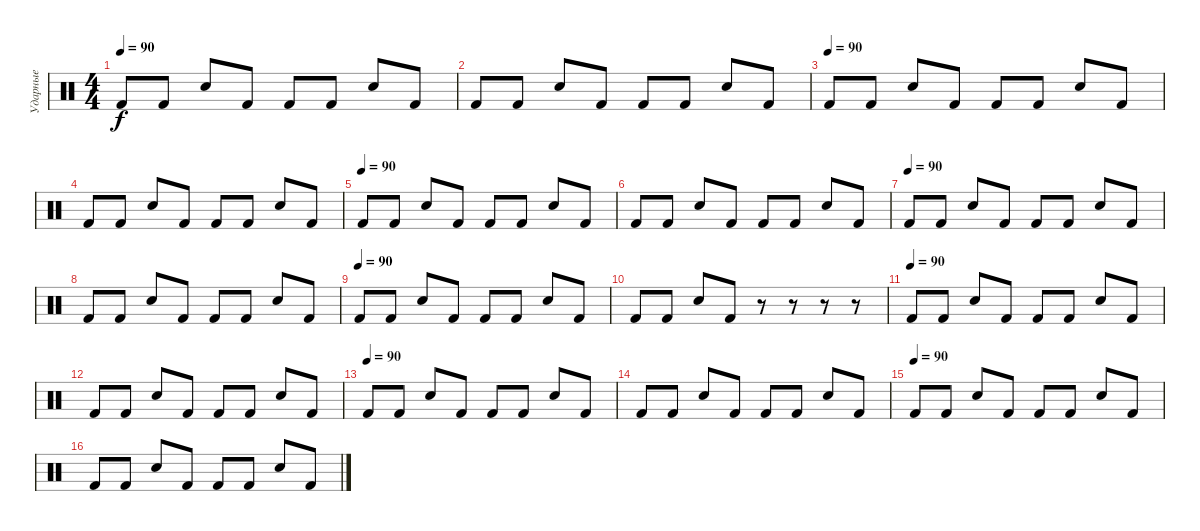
\track ("Ударные" "Ударные") {instrument percussion}
\staff {score}
\articulation defaults
\ts (4 4)
\tempo 90
\clef neutral
\ks c "Kick (hit) 2".8{dy f} "Kick (hit) 2".8 "Snare (hit) 2".8 "Kick (hit) 2".8 "Kick (hit) 2".8 "Kick (hit) 2".8 "Snare (hit) 2".8 "Kick (hit) 2".8
|
"Kick (hit) 2".8 "Kick (hit) 2".8 "Snare (hit) 2".8 "Kick (hit) 2".8 "Kick (hit) 2".8 "Kick (hit) 2".8 "Snare (hit) 2".8 "Kick (hit) 2".8 |
\tempo (90)
"Kick (hit) 2".8 "Kick (hit) 2".8 "Snare (hit) 2".8 "Kick (hit) 2".8 "Kick (hit) 2".8 "Kick (hit) 2".8 "Snare (hit) 2".8 "Kick (hit) 2".8 |
"Kick (hit) 2".8 "Kick (hit) 2".8 "Snare (hit) 2".8 "Kick (hit) 2".8 "Kick (hit) 2".8 "Kick (hit) 2".8 "Snare (hit) 2".8 "Kick (hit) 2".8 |
\tempo (90)
"Kick (hit) 2".8 "Kick (hit) 2".8 "Snare (hit) 2".8 "Kick (hit) 2".8 "Kick (hit) 2".8 "Kick (hit) 2".8 "Snare (hit) 2".8 "Kick (hit) 2".8 |
"Kick (hit) 2".8 "Kick (hit) 2".8 "Snare (hit) 2".8 "Kick (hit) 2".8 "Kick (hit) 2".8 "Kick (hit) 2".8 "Snare (hit) 2".8 "Kick (hit) 2".8 |
\tempo (90)
"Kick (hit) 2".8 "Kick (hit) 2".8 "Snare (hit) 2".8 "Kick (hit) 2".8 "Kick (hit) 2".8 "Kick (hit) 2".8 "Snare (hit) 2".8 "Kick (hit) 2".8 |
"Kick (hit) 2".8 "Kick (hit) 2".8 "Snare (hit) 2".8 "Kick (hit) 2".8 "Kick (hit) 2".8 "Kick (hit) 2".8 "Snare (hit) 2".8 "Kick (hit) 2".8 |
\tempo (90)
"Kick (hit) 2".8 "Kick (hit) 2".8 "Snare (hit) 2".8 "Kick (hit) 2".8 "Kick (hit) 2".8 "Kick (hit) 2".8 "Snare (hit) 2".8 "Kick (hit) 2".8 |
"Kick (hit) 2".8 "Kick (hit) 2".8 "Snare (hit) 2".8 "Kick (hit) 2".8 r.8 r.8 r.8 r.8 |
\tempo (90)
"Kick (hit) 2".8 "Kick (hit) 2".8 "Snare (hit) 2".8 "Kick (hit) 2".8 "Kick (hit) 2".8 "Kick (hit) 2".8 "Snare (hit) 2".8 "Kick (hit) 2".8 |
"Kick (hit) 2".8 "Kick (hit) 2".8 "Snare (hit) 2".8 "Kick (hit) 2".8 "Kick (hit) 2".8 "Kick (hit) 2".8 "Snare (hit) 2".8 "Kick (hit) 2".8 |
\tempo (90)
"Kick (hit) 2".8 "Kick (hit) 2".8 "Snare (hit) 2".8 "Kick (hit) 2".8 "Kick (hit) 2".8 "Kick (hit) 2".8 "Snare (hit) 2".8 "Kick (hit) 2".8 |
"Kick (hit) 2".8 "Kick (hit) 2".8 "Snare (hit) 2".8 "Kick (hit) 2".8 "Kick (hit) 2".8 "Kick (hit) 2".8 "Snare (hit) 2".8 "Kick (hit) 2".8 |
\tempo (90)
"Kick (hit) 2".8 "Kick (hit) 2".8 "Snare (hit) 2".8 "Kick (hit) 2".8 "Kick (hit) 2".8 "Kick (hit) 2".8 "Snare (hit) 2".8 "Kick (hit) 2".8 |
"Kick (hit) 2".8 "Kick (hit) 2".8 "Snare (hit) 2".8 "Kick (hit) 2".8 "Kick (hit) 2".8 "Kick (hit) 2".8 "Snare (hit) 2".8 "Kick (hit) 2".8
